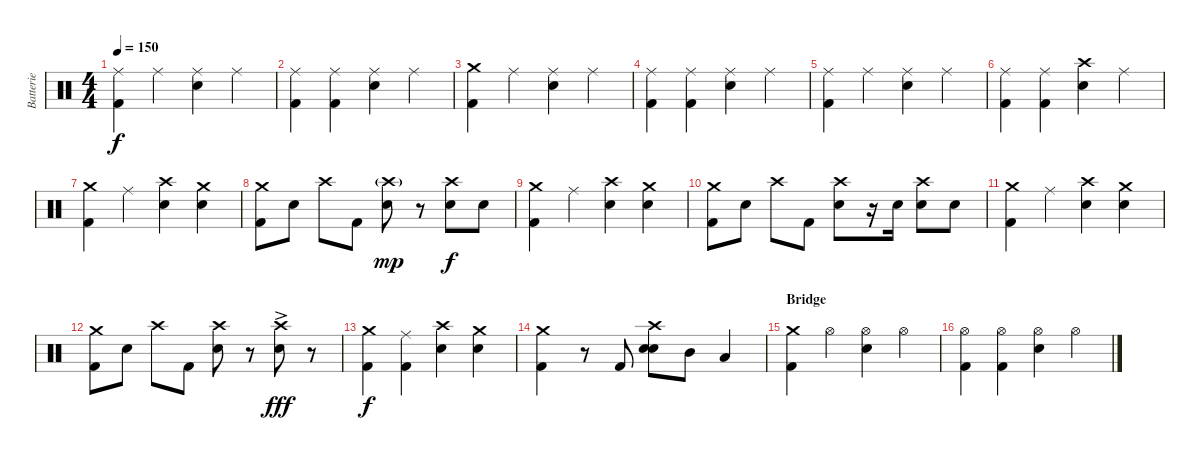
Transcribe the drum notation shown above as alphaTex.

\track ("Batterie" "Batterie") {instrument percussion}
\staff {score}
\articulation defaults
\ts (4 4)
\tempo 150
\clef neutral
\ks c
("Ride (middle)" "Kick (hit) 2").4{dy f} "Ride (middle)".4 ("Ride (middle)" "Electric Snare (hit)").4 "Ride (middle)".4 |
("Ride (middle)" "Kick (hit) 2").4 ("Ride (middle)" "Kick (hit) 2").4 ("Ride (middle)" "Electric Snare (hit)").4 "Ride (middle)".4 |
("Crash medium (hit)" "Kick (hit) 2").4 "Ride (middle)".4 ("Ride (middle)" "Electric Snare (hit)").4 "Ride (middle)".4 |
("Ride (middle)" "Kick (hit) 2").4 ("Ride (middle)" "Kick (hit) 2").4 ("Ride (middle)" "Electric Snare (hit)").4 "Ride (middle)".4 |
("Ride (middle)" "Kick (hit) 2").4 "Ride (middle)".4 ("Ride (middle)" "Electric Snare (hit)").4 "Ride (middle)".4 |
("Ride (middle)" "Kick (hit) 2").4 ("Ride (middle)" "Kick (hit) 2").4 ("Crash high (hit)" "Electric Snare (hit)").4 "Ride (middle)".4 |
("Crash medium (hit)" "Kick (hit) 2").4 "Ride (middle)".4 ("Crash high (hit)" "Electric Snare (hit)").4 ("Crash medium (hit)" "Electric Snare (hit)").4 |
("Crash medium (hit)" "Kick (hit) 2").8 "Electric Snare (hit)".8 "Crash high (hit)".8 "Kick (hit) 2".8 ("Crash high (hit)"{g} "Electric Snare (hit)").8{dy mp} r.8 ("Crash high (hit)" "Electric Snare (hit)").8{dy f} "Electric Snare (hit)".8 |
("Crash medium (hit)" "Kick (hit) 2").4 "Ride (middle)".4 ("Crash high (hit)" "Electric Snare (hit)").4 ("Crash medium (hit)" "Electric Snare (hit)").4 |
("Crash medium (hit)" "Kick (hit) 2").8 "Electric Snare (hit)".8 "Crash high (hit)".8 "Kick (hit) 2".8 ("Crash high (hit)" "Electric Snare (hit)").8 r.16 "Electric Snare (hit)".16 ("Crash high (hit)" "Electric Snare (hit)").8 "Electric Snare (hit)".8 |
("Crash medium (hit)" "Kick (hit) 2").4 "Ride (middle)".4 ("Crash high (hit)" "Electric Snare (hit)").4 ("Crash medium (hit)" "Electric Snare (hit)").4 |
("Crash medium (hit)" "Kick (hit) 2").8 "Electric Snare (hit)".8 "Crash high (hit)".8 "Kick (hit) 2".8 ("Crash high (hit)" "Electric Snare (hit)").8 r.8 ("Crash high (hit)"{ac} "Electric Snare (hit)").8{dy fff} r.8 |
("Crash medium (hit)" "Kick (hit) 2").4{dy f} ("Ride (middle)" "Kick (hit) 2").4 ("Crash high (hit)" "Electric Snare (hit)").4 ("Crash medium (hit)" "Electric Snare (hit)").4 |
("Crash medium (hit)" "Kick (hit) 2").4 r.8 "Kick (hit) 2".8 ("Crash high (hit)" "Electric Snare (hit)" "Electric Snare (hit)").8{bu 120} "Mid Tom (hit)".8 "Low Tom (hit)".4 |
\section ("" "Bridge")
("Crash medium (hit)" "Kick (hit) 2").4 "Hi-Hat (open)".4 ("Hi-Hat (open)" "Electric Snare (hit)").4 "Hi-Hat (open)".4 |
("Hi-Hat (open)" "Kick (hit) 2").4 ("Hi-Hat (open)" "Kick (hit) 2").4 ("Hi-Hat (open)" "Electric Snare (hit)").4 "Hi-Hat (open)".4
